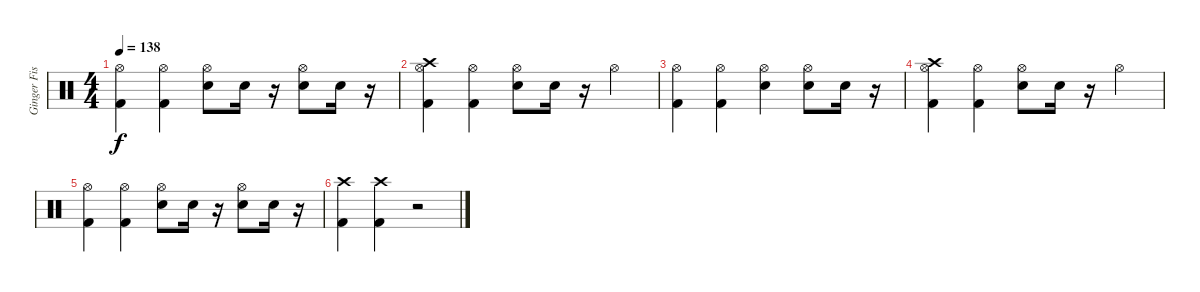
\track ("Ginger Fish (Drums)" "Ginger Fis") {instrument percussion}
\staff {score}
\articulation defaults
\ts (4 4)
\tempo 138
\clef neutral
\ks c
("Hi-Hat (open)" "Kick (hit) 2").4{dy f} ("Hi-Hat (open)" "Kick (hit) 2").4 ("Hi-Hat (open)" "Snare (hit) 2").8 "Snare (hit) 2".16 r.16 ("Hi-Hat (open)" "Snare (hit) 2").8 "Snare (hit) 2".16 r.16 |
("Kick (hit) 2" "Hi-Hat (open)" "Crash high (hit)").4 ("Kick (hit) 2" "Hi-Hat (open)").4 ("Snare (hit) 2" "Hi-Hat (open)").8 "Snare (hit) 2".16 r.16 "Hi-Hat (open)".4 |
("Kick (hit) 2" "Hi-Hat (open)").4 ("Kick (hit) 2" "Hi-Hat (open)").4 ("Snare (hit) 2" "Hi-Hat (open)").4 ("Snare (hit) 2" "Hi-Hat (open)").8 "Snare (hit) 2".16 r.16 |
("Crash high (hit)" "Hi-Hat (open)" "Kick (hit) 2").4 ("Hi-Hat (open)" "Kick (hit) 2").4 ("Hi-Hat (open)" "Snare (hit) 2").8 "Snare (hit) 2".16 r.16 "Hi-Hat (open)".4 |
("Hi-Hat (open)" "Kick (hit) 2").4 ("Hi-Hat (open)" "Kick (hit) 2").4 ("Hi-Hat (open)" "Snare (hit) 2").8 "Snare (hit) 2".16 r.16 ("Hi-Hat (open)" "Snare (hit) 2").8 "Snare (hit) 2".16 r.16 |
("Crash high (hit)" "Kick (hit) 2").4 ("Crash high (hit)" "Kick (hit) 2").4 r.2
